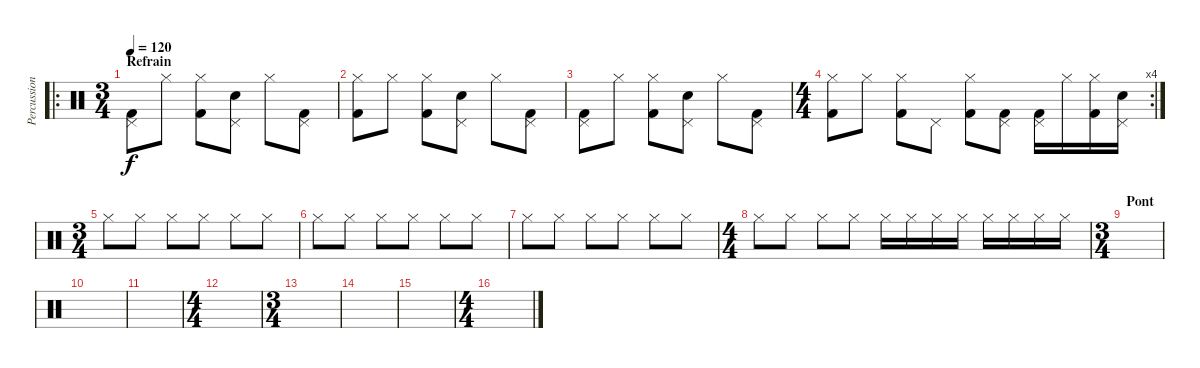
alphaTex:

\track ("Percussions" "Percussion") {instrument percussion}
\staff {score}
\articulation defaults
\ro
\ts (3 4)
\section ("" "Refrain")
\tempo 120
\clef neutral
\ks c
("Kick (hit) 2" "Pedal Hi-Hat (hit)").8{dy f} "Hi-Hat (closed)".8 ("Kick (hit) 2" "Hi-Hat (closed)").8 ("Snare (hit) 2" "Pedal Hi-Hat (hit)").8 "Hi-Hat (closed)".8 ("Kick (hit) 2" "Pedal Hi-Hat (hit)").8 |
("Kick (hit) 2" "Hi-Hat (closed)").8 "Hi-Hat (closed)".8 ("Kick (hit) 2" "Hi-Hat (closed)").8 ("Snare (hit) 2" "Pedal Hi-Hat (hit)").8 "Hi-Hat (closed)".8 ("Kick (hit) 2" "Pedal Hi-Hat (hit)").8 |
("Kick (hit) 2" "Pedal Hi-Hat (hit)").8 "Hi-Hat (closed)".8 ("Kick (hit) 2" "Hi-Hat (closed)").8 ("Snare (hit) 2" "Pedal Hi-Hat (hit)").8 "Hi-Hat (closed)".8 ("Kick (hit) 2" "Pedal Hi-Hat (hit)").8 |
\rc 4
\ts (4 4)
("Kick (hit) 2" "Hi-Hat (closed)").8 "Hi-Hat (closed)".8 ("Kick (hit) 2" "Hi-Hat (closed)").8 "Pedal Hi-Hat (hit)".8 ("Kick (hit) 2" "Hi-Hat (closed)").8 ("Kick (hit) 2" "Pedal Hi-Hat (hit)").8 ("Kick (hit) 2" "Pedal Hi-Hat (hit)").16 "Hi-Hat (closed)".16 ("Kick (hit) 2" "Hi-Hat (closed)").16 ("Snare (hit) 2" "Pedal Hi-Hat (hit)").16 |
\ts (3 4)
"Hi-Hat (closed)".8 "Hi-Hat (closed)".8 "Hi-Hat (closed)".8 "Hi-Hat (closed)".8 "Hi-Hat (closed)".8 "Hi-Hat (closed)".8 |
"Hi-Hat (closed)".8 "Hi-Hat (closed)".8 "Hi-Hat (closed)".8 "Hi-Hat (closed)".8 "Hi-Hat (closed)".8 "Hi-Hat (closed)".8 |
"Hi-Hat (closed)".8 "Hi-Hat (closed)".8 "Hi-Hat (closed)".8 "Hi-Hat (closed)".8 "Hi-Hat (closed)".8 "Hi-Hat (closed)".8 |
\ts (4 4)
"Hi-Hat (closed)".8 "Hi-Hat (closed)".8 "Hi-Hat (closed)".8 "Hi-Hat (closed)".8 "Hi-Hat (closed)".16 "Hi-Hat (closed)".16 "Hi-Hat (closed)".16 "Hi-Hat (closed)".16 "Hi-Hat (closed)".16 "Hi-Hat (closed)".16 "Hi-Hat (closed)".16 "Hi-Hat (closed)".16 |
\ts (3 4)
\section ("" "Pont")
|
|
|
\ts (4 4)
|
\ts (3 4)
|
|
|
\ts (4 4)
